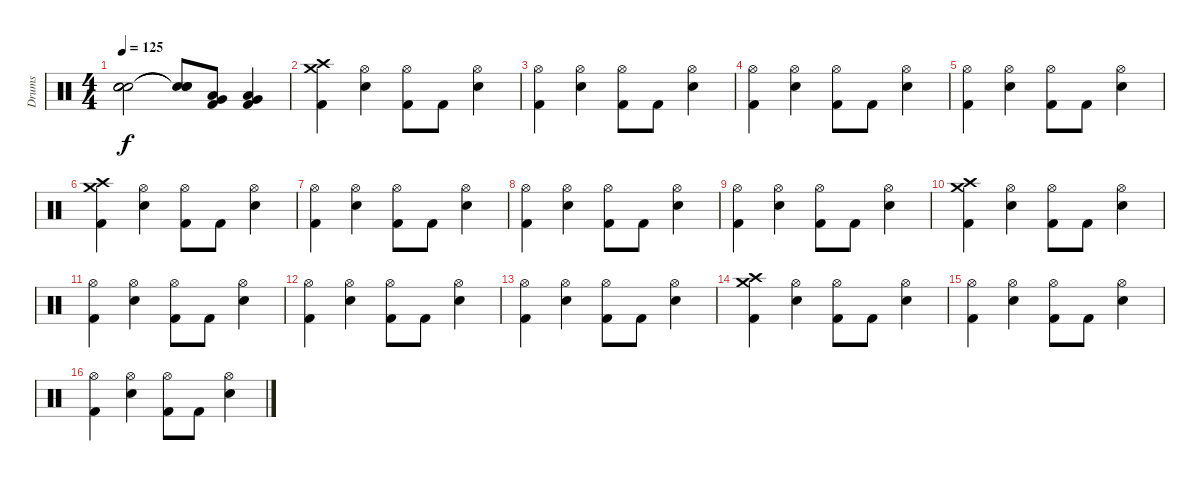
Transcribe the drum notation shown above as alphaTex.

\track ("Drums" "Drums") {instrument percussion}
\staff {score}
\articulation defaults
\ts (4 4)
\tempo 125
\clef neutral
\ks c
("Snare (hit)"{t} "Snare (hit)"{t} "Snare (hit)"{t}).2{dy f} ("Snare (hit)"{t} "Snare (hit)"{t} "Snare (hit)"{t}).8 ("Low Tom (hit)" "Very Low Tom (hit)" "Kick (hit) 2").8 ("Low Tom (hit)" "Very Low Tom (hit)" "Kick (hit) 2").4 |
("Crash medium (hit)" "Crash high (hit)" "Kick (hit) 2").4 ("Hi-Hat (open)" "Snare (hit) 2").4 ("Hi-Hat (open)" "Kick (hit) 2").8 "Kick (hit) 2".8 ("Hi-Hat (open)" "Snare (hit) 2").4 |
("Hi-Hat (open)" "Kick (hit) 2").4 ("Hi-Hat (open)" "Snare (hit) 2").4 ("Hi-Hat (open)" "Kick (hit) 2").8 "Kick (hit) 2".8 ("Hi-Hat (open)" "Snare (hit) 2").4 |
("Hi-Hat (open)" "Kick (hit) 2").4 ("Hi-Hat (open)" "Snare (hit) 2").4 ("Hi-Hat (open)" "Kick (hit) 2").8 "Kick (hit) 2".8 ("Hi-Hat (open)" "Snare (hit) 2").4 |
("Hi-Hat (open)" "Kick (hit) 2").4 ("Hi-Hat (open)" "Snare (hit) 2").4 ("Hi-Hat (open)" "Kick (hit) 2").8 "Kick (hit) 2".8 ("Hi-Hat (open)" "Snare (hit) 2").4 |
("Crash medium (hit)" "Crash high (hit)" "Kick (hit) 2").4 ("Hi-Hat (open)" "Snare (hit) 2").4 ("Hi-Hat (open)" "Kick (hit) 2").8 "Kick (hit) 2".8 ("Hi-Hat (open)" "Snare (hit) 2").4 |
("Hi-Hat (open)" "Kick (hit) 2").4 ("Hi-Hat (open)" "Snare (hit) 2").4 ("Hi-Hat (open)" "Kick (hit) 2").8 "Kick (hit) 2".8 ("Hi-Hat (open)" "Snare (hit) 2").4 |
("Hi-Hat (open)" "Kick (hit) 2").4 ("Hi-Hat (open)" "Snare (hit) 2").4 ("Hi-Hat (open)" "Kick (hit) 2").8 "Kick (hit) 2".8 ("Hi-Hat (open)" "Snare (hit) 2").4 |
("Hi-Hat (open)" "Kick (hit) 2").4 ("Hi-Hat (open)" "Snare (hit) 2").4 ("Hi-Hat (open)" "Kick (hit) 2").8 "Kick (hit) 2".8 ("Hi-Hat (open)" "Snare (hit) 2").4 |
("Crash medium (hit)" "Crash high (hit)" "Kick (hit) 2").4 ("Hi-Hat (open)" "Snare (hit) 2").4 ("Hi-Hat (open)" "Kick (hit) 2").8 "Kick (hit) 2".8 ("Hi-Hat (open)" "Snare (hit) 2").4 |
("Hi-Hat (open)" "Kick (hit) 2").4 ("Hi-Hat (open)" "Snare (hit) 2").4 ("Hi-Hat (open)" "Kick (hit) 2").8 "Kick (hit) 2".8 ("Hi-Hat (open)" "Snare (hit) 2").4 |
("Hi-Hat (open)" "Kick (hit) 2").4 ("Hi-Hat (open)" "Snare (hit) 2").4 ("Hi-Hat (open)" "Kick (hit) 2").8 "Kick (hit) 2".8 ("Hi-Hat (open)" "Snare (hit) 2").4 |
("Hi-Hat (open)" "Kick (hit) 2").4 ("Hi-Hat (open)" "Snare (hit) 2").4 ("Hi-Hat (open)" "Kick (hit) 2").8 "Kick (hit) 2".8 ("Hi-Hat (open)" "Snare (hit) 2").4 |
("Crash medium (hit)" "Crash high (hit)" "Kick (hit) 2").4 ("Hi-Hat (open)" "Snare (hit) 2").4 ("Hi-Hat (open)" "Kick (hit) 2").8 "Kick (hit) 2".8 ("Hi-Hat (open)" "Snare (hit) 2").4 |
("Hi-Hat (open)" "Kick (hit) 2").4 ("Hi-Hat (open)" "Snare (hit) 2").4 ("Hi-Hat (open)" "Kick (hit) 2").8 "Kick (hit) 2".8 ("Hi-Hat (open)" "Snare (hit) 2").4 |
("Hi-Hat (open)" "Kick (hit) 2").4 ("Hi-Hat (open)" "Snare (hit) 2").4 ("Hi-Hat (open)" "Kick (hit) 2").8 "Kick (hit) 2".8 ("Hi-Hat (open)" "Snare (hit) 2").4
